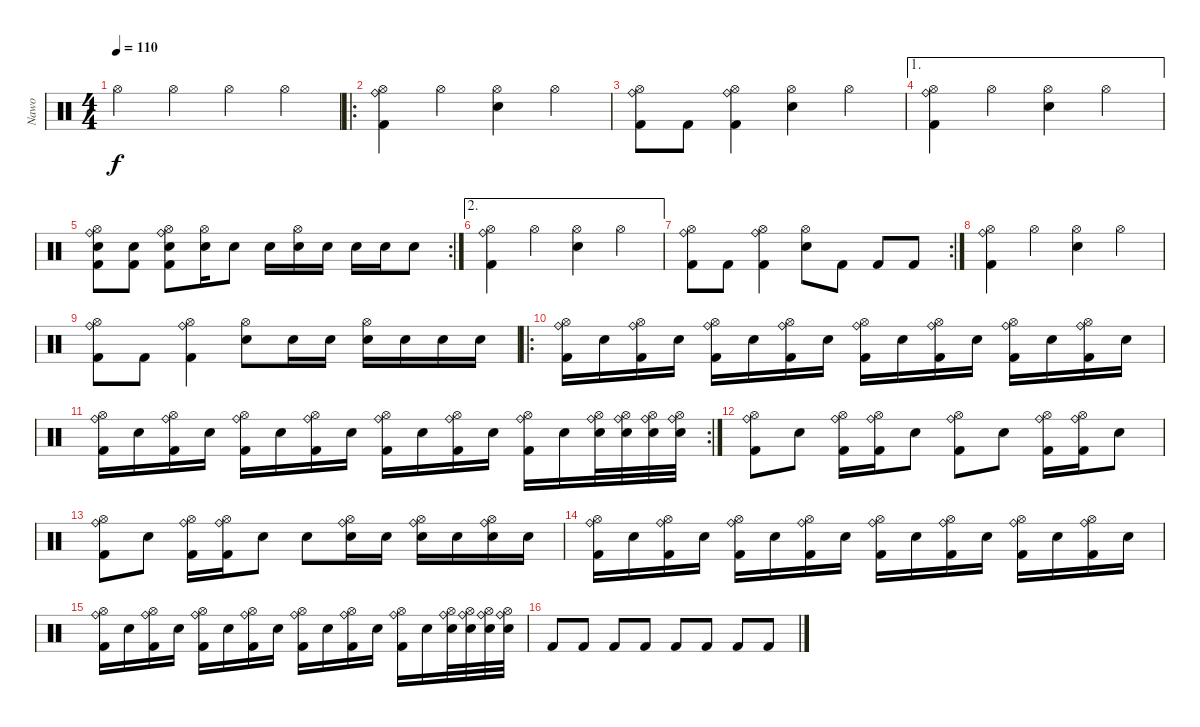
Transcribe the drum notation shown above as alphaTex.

\track ("Nawo" "Nawo") {instrument percussion}
\staff {score}
\articulation defaults
\ts (4 4)
\tempo 110
\clef neutral
\ks c "Hi-Hat (open)".4{dy f} "Hi-Hat (open)".4 "Hi-Hat (open)".4 "Hi-Hat (open)".4
|
\ro
("Ride (bell)" "Hi-Hat (open)" "Kick (hit) 2").4 "Hi-Hat (open)".4 ("Hi-Hat (open)" "Electric Snare (hit)").4 "Hi-Hat (open)".4 |
("Ride (bell)" "Hi-Hat (open)" "Kick (hit) 2").8 "Kick (hit) 2".8 ("Ride (bell)" "Hi-Hat (open)" "Kick (hit) 2").4 ("Hi-Hat (open)" "Electric Snare (hit)").4 "Hi-Hat (open)".4 |
\ae 1
("Ride (bell)" "Hi-Hat (open)" "Kick (hit) 2").4 "Hi-Hat (open)".4 ("Hi-Hat (open)" "Electric Snare (hit)").4 "Hi-Hat (open)".4 |
\rc 2
("Ride (bell)" "Hi-Hat (open)" "Kick (hit) 2" "Electric Snare (hit)").8 ("Kick (hit) 2" "Electric Snare (hit)").8 ("Ride (bell)" "Hi-Hat (open)" "Kick (hit) 2" "Electric Snare (hit)").8 ("Hi-Hat (open)" "Electric Snare (hit)").16 "Electric Snare (hit)".8 "Electric Snare (hit)".16 ("Hi-Hat (open)" "Electric Snare (hit)").16 "Electric Snare (hit)".16 "Electric Snare (hit)".16 "Electric Snare (hit)".16 "Electric Snare (hit)".8 |
\ae 2
("Ride (bell)" "Hi-Hat (open)" "Kick (hit) 2").4 "Hi-Hat (open)".4 ("Hi-Hat (open)" "Electric Snare (hit)").4 "Hi-Hat (open)".4 |
\rc 2
("Ride (bell)" "Hi-Hat (open)" "Kick (hit) 2").8 "Kick (hit) 2".8 ("Ride (bell)" "Hi-Hat (open)" "Kick (hit) 2").4 ("Hi-Hat (open)" "Electric Snare (hit)").8 "Kick (hit) 2".8 "Kick (hit) 2".8 "Kick (hit) 2".8 |
("Ride (bell)" "Hi-Hat (open)" "Kick (hit) 2").4 "Hi-Hat (open)".4 ("Hi-Hat (open)" "Electric Snare (hit)").4 "Hi-Hat (open)".4 |
("Ride (bell)" "Hi-Hat (open)" "Kick (hit) 2").8 "Kick (hit) 2".8 ("Ride (bell)" "Hi-Hat (open)" "Kick (hit) 2").4 ("Hi-Hat (open)" "Electric Snare (hit)").8 "Electric Snare (hit)".16 "Electric Snare (hit)".16 ("Hi-Hat (open)" "Electric Snare (hit)").16 "Electric Snare (hit)".16 "Electric Snare (hit)".16 "Electric Snare (hit)".16 |
\ro
("Ride (bell)" "Hi-Hat (open)" "Kick (hit) 2").16 "Electric Snare (hit)".16 ("Ride (bell)" "Hi-Hat (open)" "Kick (hit) 2").16 "Electric Snare (hit)".16 ("Ride (bell)" "Hi-Hat (open)" "Kick (hit) 2").16 "Electric Snare (hit)".16 ("Ride (bell)" "Hi-Hat (open)" "Kick (hit) 2").16 "Electric Snare (hit)".16 ("Ride (bell)" "Hi-Hat (open)" "Kick (hit) 2").16 "Electric Snare (hit)".16 ("Ride (bell)" "Hi-Hat (open)" "Kick (hit) 2").16 "Electric Snare (hit)".16 ("Ride (bell)" "Hi-Hat (open)" "Kick (hit) 2").16 "Electric Snare (hit)".16 ("Ride (bell)" "Hi-Hat (open)" "Kick (hit) 2").16 "Electric Snare (hit)".16 |
\rc 2
("Ride (bell)" "Hi-Hat (open)" "Kick (hit) 2").16 "Electric Snare (hit)".16 ("Ride (bell)" "Hi-Hat (open)" "Kick (hit) 2").16 "Electric Snare (hit)".16 ("Ride (bell)" "Hi-Hat (open)" "Kick (hit) 2").16 "Electric Snare (hit)".16 ("Ride (bell)" "Hi-Hat (open)" "Kick (hit) 2").16 "Electric Snare (hit)".16 ("Ride (bell)" "Hi-Hat (open)" "Kick (hit) 2").16 "Electric Snare (hit)".16 ("Ride (bell)" "Hi-Hat (open)" "Kick (hit) 2").16 "Electric Snare (hit)".16 ("Ride (bell)" "Hi-Hat (open)" "Kick (hit) 2").16 "Electric Snare (hit)".16 ("Ride (bell)" "Hi-Hat (open)" "Electric Snare (hit)").32 ("Ride (bell)" "Hi-Hat (open)" "Electric Snare (hit)").32 ("Ride (bell)" "Hi-Hat (open)" "Electric Snare (hit)").32 ("Ride (bell)" "Hi-Hat (open)" "Electric Snare (hit)").32 |
("Ride (bell)" "Hi-Hat (open)" "Kick (hit) 2").8 "Electric Snare (hit)".8 ("Ride (bell)" "Hi-Hat (open)" "Kick (hit) 2").16 ("Ride (bell)" "Hi-Hat (open)" "Kick (hit) 2").16 "Electric Snare (hit)".8 ("Ride (bell)" "Hi-Hat (open)" "Kick (hit) 2").8 "Electric Snare (hit)".8 ("Ride (bell)" "Hi-Hat (open)" "Kick (hit) 2").16 ("Ride (bell)" "Hi-Hat (open)" "Kick (hit) 2").16 "Electric Snare (hit)".8 |
("Ride (bell)" "Hi-Hat (open)" "Kick (hit) 2").8 "Electric Snare (hit)".8 ("Ride (bell)" "Hi-Hat (open)" "Kick (hit) 2").16 ("Ride (bell)" "Hi-Hat (open)" "Kick (hit) 2").16 "Electric Snare (hit)".8 "Electric Snare (hit)".8 ("Ride (bell)" "Hi-Hat (open)" "Electric Snare (hit)").16 "Electric Snare (hit)".16 ("Ride (bell)" "Hi-Hat (open)" "Electric Snare (hit)").16 "Electric Snare (hit)".16 ("Ride (bell)" "Hi-Hat (open)" "Electric Snare (hit)").16 "Electric Snare (hit)".16 |
("Ride (bell)" "Hi-Hat (open)" "Kick (hit) 2").16 "Electric Snare (hit)".16 ("Ride (bell)" "Hi-Hat (open)" "Kick (hit) 2").16 "Electric Snare (hit)".16 ("Ride (bell)" "Hi-Hat (open)" "Kick (hit) 2").16 "Electric Snare (hit)".16 ("Ride (bell)" "Hi-Hat (open)" "Kick (hit) 2").16 "Electric Snare (hit)".16 ("Ride (bell)" "Hi-Hat (open)" "Kick (hit) 2").16 "Electric Snare (hit)".16 ("Ride (bell)" "Hi-Hat (open)" "Kick (hit) 2").16 "Electric Snare (hit)".16 ("Ride (bell)" "Hi-Hat (open)" "Kick (hit) 2").16 "Electric Snare (hit)".16 ("Ride (bell)" "Hi-Hat (open)" "Kick (hit) 2").16 "Electric Snare (hit)".16 |
("Ride (bell)" "Hi-Hat (open)" "Kick (hit) 2").16 "Electric Snare (hit)".16 ("Ride (bell)" "Hi-Hat (open)" "Kick (hit) 2").16 "Electric Snare (hit)".16 ("Ride (bell)" "Hi-Hat (open)" "Kick (hit) 2").16 "Electric Snare (hit)".16 ("Ride (bell)" "Hi-Hat (open)" "Kick (hit) 2").16 "Electric Snare (hit)".16 ("Ride (bell)" "Hi-Hat (open)" "Kick (hit) 2").16 "Electric Snare (hit)".16 ("Ride (bell)" "Hi-Hat (open)" "Kick (hit) 2").16 "Electric Snare (hit)".16 ("Ride (bell)" "Hi-Hat (open)" "Kick (hit) 2").16 "Electric Snare (hit)".16 ("Ride (bell)" "Hi-Hat (open)" "Electric Snare (hit)").32 ("Ride (bell)" "Hi-Hat (open)" "Electric Snare (hit)").32 ("Ride (bell)" "Hi-Hat (open)" "Electric Snare (hit)").32 ("Ride (bell)" "Hi-Hat (open)" "Electric Snare (hit)").32 |
"Kick (hit) 2".8 "Kick (hit) 2".8 "Kick (hit) 2".8 "Kick (hit) 2".8 "Kick (hit) 2".8 "Kick (hit) 2".8 "Kick (hit) 2".8 "Kick (hit) 2".8
